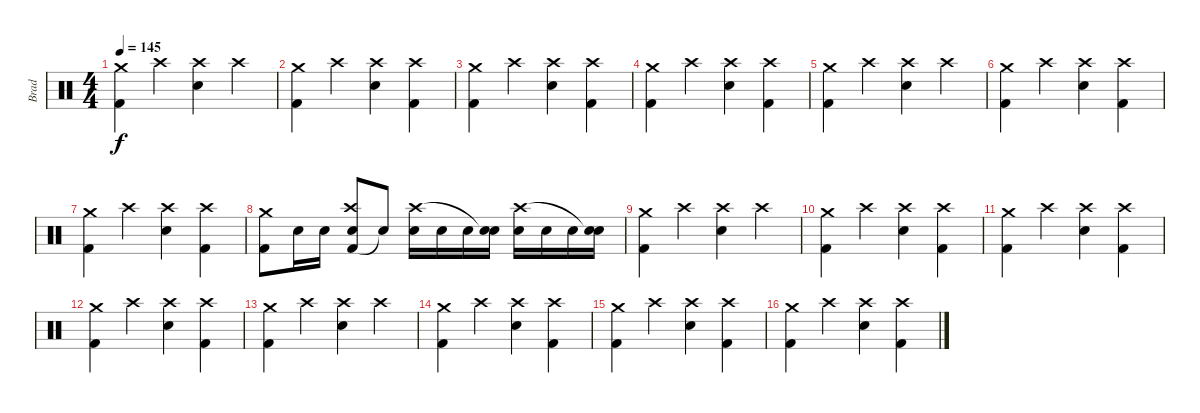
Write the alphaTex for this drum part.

\track ("Brad" "Brad") {instrument percussion}
\staff {score}
\articulation defaults
\ts (4 4)
\tempo 145
\clef neutral
\ks c
("Kick (hit) 2" "Crash medium (hit)").4{dy f} "Crash high (hit)".4 ("Snare (hit) 2" "Crash high (hit)").4 "Crash high (hit)".4 |
("Kick (hit) 2" "Crash medium (hit)").4 "Crash high (hit)".4 ("Snare (hit) 2" "Crash high (hit)").4 ("Kick (hit) 2" "Crash high (hit)").4 |
("Kick (hit) 2" "Crash medium (hit)").4 "Crash high (hit)".4 ("Snare (hit) 2" "Crash high (hit)").4 ("Kick (hit) 2" "Crash high (hit)").4 |
("Kick (hit) 2" "Crash medium (hit)").4 "Crash high (hit)".4 ("Snare (hit) 2" "Crash high (hit)").4 ("Kick (hit) 2" "Crash high (hit)").4 |
("Kick (hit) 2" "Crash medium (hit)").4 "Crash high (hit)".4 ("Snare (hit) 2" "Crash high (hit)").4 "Crash high (hit)".4 |
("Kick (hit) 2" "Crash medium (hit)").4 "Crash high (hit)".4 ("Snare (hit) 2" "Crash high (hit)").4 ("Kick (hit) 2" "Crash high (hit)").4 |
("Kick (hit) 2" "Crash medium (hit)").4 "Crash high (hit)".4 ("Snare (hit) 2" "Crash high (hit)").4 ("Kick (hit) 2" "Crash high (hit)").4 |
("Kick (hit) 2" "Crash medium (hit)").8 "Snare (hit) 2".16 "Snare (hit) 2".16 ("Kick (hit) 2" "Snare (hit) 2" "Crash high (hit)").8 "Snare (hit)"{t}.8 ("Snare (hit) 2" "Crash high (hit)").16 "Snare (hit) 2".16 "Snare (hit) 2".16 ("Snare (hit) 2" "Snare (hit)"{t}).16 ("Snare (hit) 2" "Crash high (hit)").16 "Snare (hit) 2".16 "Snare (hit) 2".16 ("Snare (hit) 2" "Snare (hit)"{t}).16 |
("Kick (hit) 2" "Crash medium (hit)").4 "Crash high (hit)".4 ("Snare (hit) 2" "Crash high (hit)").4 "Crash high (hit)".4 |
("Kick (hit) 2" "Crash medium (hit)").4 "Crash high (hit)".4 ("Snare (hit) 2" "Crash high (hit)").4 ("Kick (hit) 2" "Crash high (hit)").4 |
("Kick (hit) 2" "Crash medium (hit)").4 "Crash high (hit)".4 ("Snare (hit) 2" "Crash high (hit)").4 ("Kick (hit) 2" "Crash high (hit)").4 |
("Kick (hit) 2" "Crash medium (hit)").4 "Crash high (hit)".4 ("Snare (hit) 2" "Crash high (hit)").4 ("Kick (hit) 2" "Crash high (hit)").4 |
("Kick (hit) 2" "Crash medium (hit)").4 "Crash high (hit)".4 ("Snare (hit) 2" "Crash high (hit)").4 "Crash high (hit)".4 |
("Kick (hit) 2" "Crash medium (hit)").4 "Crash high (hit)".4 ("Snare (hit) 2" "Crash high (hit)").4 ("Kick (hit) 2" "Crash high (hit)").4 |
("Kick (hit) 2" "Crash medium (hit)").4 "Crash high (hit)".4 ("Snare (hit) 2" "Crash high (hit)").4 ("Kick (hit) 2" "Crash high (hit)").4 |
("Kick (hit) 2" "Crash medium (hit)").4 "Crash high (hit)".4 ("Snare (hit) 2" "Crash high (hit)").4 ("Kick (hit) 2" "Crash high (hit)").4
